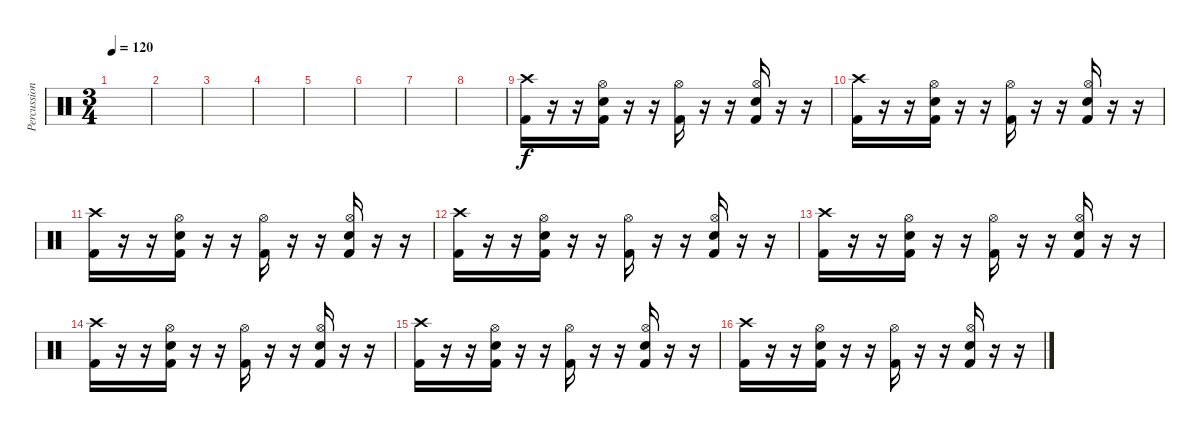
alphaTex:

\track ("Percussion" "Percussion") {instrument percussion}
\staff {score}
\articulation defaults
\ts (3 4)
\tempo 120
\clef neutral
\ks c
|
|
|
|
|
|
|
|
("Crash high (hit)" "Kick (hit) 2").16 r.16 r.16 ("Hi-Hat (open)" "Snare (hit) 2" "Kick (hit) 2").16 r.16 r.16 ("Hi-Hat (open)" "Kick (hit) 2").16 r.16 r.16 ("Hi-Hat (open)" "Snare (hit) 2" "Kick (hit) 2").16 r.16 r.16 |
("Crash high (hit)" "Kick (hit) 2").16 r.16 r.16 ("Hi-Hat (open)" "Snare (hit) 2" "Kick (hit) 2").16 r.16 r.16 ("Hi-Hat (open)" "Kick (hit) 2").16 r.16 r.16 ("Hi-Hat (open)" "Snare (hit) 2" "Kick (hit) 2").16 r.16 r.16 |
("Crash high (hit)" "Kick (hit) 2").16 r.16 r.16 ("Hi-Hat (open)" "Snare (hit) 2" "Kick (hit) 2").16 r.16 r.16 ("Hi-Hat (open)" "Kick (hit) 2").16 r.16 r.16 ("Hi-Hat (open)" "Snare (hit) 2" "Kick (hit) 2").16 r.16 r.16 |
("Crash high (hit)" "Kick (hit) 2").16 r.16 r.16 ("Hi-Hat (open)" "Snare (hit) 2" "Kick (hit) 2").16 r.16 r.16 ("Hi-Hat (open)" "Kick (hit) 2").16 r.16 r.16 ("Hi-Hat (open)" "Snare (hit) 2" "Kick (hit) 2").16 r.16 r.16 |
("Crash high (hit)" "Kick (hit) 2").16 r.16 r.16 ("Hi-Hat (open)" "Snare (hit) 2" "Kick (hit) 2").16 r.16 r.16 ("Hi-Hat (open)" "Kick (hit) 2").16 r.16 r.16 ("Hi-Hat (open)" "Snare (hit) 2" "Kick (hit) 2").16 r.16 r.16 |
("Crash high (hit)" "Kick (hit) 2").16 r.16 r.16 ("Hi-Hat (open)" "Snare (hit) 2" "Kick (hit) 2").16 r.16 r.16 ("Hi-Hat (open)" "Kick (hit) 2").16 r.16 r.16 ("Hi-Hat (open)" "Snare (hit) 2" "Kick (hit) 2").16 r.16 r.16 |
("Crash high (hit)" "Kick (hit) 2").16 r.16 r.16 ("Hi-Hat (open)" "Snare (hit) 2" "Kick (hit) 2").16 r.16 r.16 ("Hi-Hat (open)" "Kick (hit) 2").16 r.16 r.16 ("Hi-Hat (open)" "Snare (hit) 2" "Kick (hit) 2").16 r.16 r.16 |
("Crash high (hit)" "Kick (hit) 2").16 r.16 r.16 ("Hi-Hat (open)" "Snare (hit) 2" "Kick (hit) 2").16 r.16 r.16 ("Hi-Hat (open)" "Kick (hit) 2").16 r.16 r.16 ("Hi-Hat (open)" "Snare (hit) 2" "Kick (hit) 2").16 r.16 r.16
